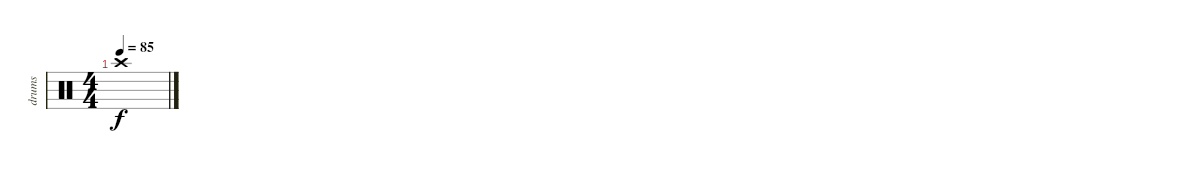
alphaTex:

\track ("drums" "drums") {instrument percussion}
\staff {score}
\articulation defaults
\ts (4 4)
\tempo 85
\clef neutral
\ks c "Crash high (hit)".1{dy f}
